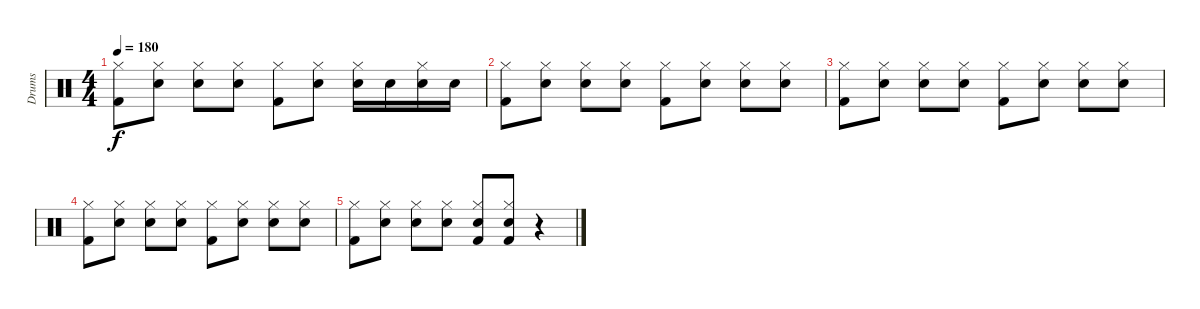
\track ("Drums" "Drums") {instrument percussion}
\staff {score}
\articulation defaults
\ts (4 4)
\tempo 180
\clef neutral
\ks c
("Kick (hit) 2" "Hi-Hat (closed)").8{dy f} ("Hi-Hat (closed)" "Snare (hit) 2").8 ("Hi-Hat (closed)" "Electric Snare (hit)").8 ("Hi-Hat (closed)" "Electric Snare (hit)").8 ("Hi-Hat (closed)" "Kick (hit) 2").8 ("Hi-Hat (closed)" "Snare (hit) 2").8 ("Hi-Hat (closed)" "Snare (hit) 2").16 "Snare (hit) 2".16 ("Hi-Hat (closed)" "Snare (hit) 2").16 "Snare (hit) 2".16 |
("Kick (hit) 2" "Hi-Hat (closed)").8 ("Hi-Hat (closed)" "Snare (hit) 2").8 ("Hi-Hat (closed)" "Electric Snare (hit)").8 ("Hi-Hat (closed)" "Electric Snare (hit)").8 ("Hi-Hat (closed)" "Kick (hit) 2").8 ("Hi-Hat (closed)" "Snare (hit) 2").8 ("Hi-Hat (closed)" "Snare (hit) 2").8 ("Hi-Hat (closed)" "Snare (hit) 2").8 |
("Kick (hit) 2" "Hi-Hat (closed)").8 ("Hi-Hat (closed)" "Snare (hit) 2").8 ("Hi-Hat (closed)" "Electric Snare (hit)").8 ("Hi-Hat (closed)" "Electric Snare (hit)").8 ("Hi-Hat (closed)" "Kick (hit) 2").8 ("Hi-Hat (closed)" "Snare (hit) 2").8 ("Hi-Hat (closed)" "Snare (hit) 2").8 ("Hi-Hat (closed)" "Snare (hit) 2").8 |
("Kick (hit) 2" "Hi-Hat (closed)").8 ("Hi-Hat (closed)" "Snare (hit) 2").8 ("Hi-Hat (closed)" "Electric Snare (hit)").8 ("Hi-Hat (closed)" "Electric Snare (hit)").8 ("Hi-Hat (closed)" "Kick (hit) 2").8 ("Hi-Hat (closed)" "Snare (hit) 2").8 ("Hi-Hat (closed)" "Snare (hit) 2").8 ("Hi-Hat (closed)" "Snare (hit) 2").8 |
("Kick (hit) 2" "Hi-Hat (closed)").8 ("Hi-Hat (closed)" "Snare (hit) 2").8 ("Hi-Hat (closed)" "Electric Snare (hit)").8 ("Hi-Hat (closed)" "Electric Snare (hit)").8 ("Hi-Hat (closed)" "Kick (hit) 2" "Snare (hit) 2").8 ("Hi-Hat (closed)" "Kick (hit) 2" "Snare (hit) 2").8 r.4
